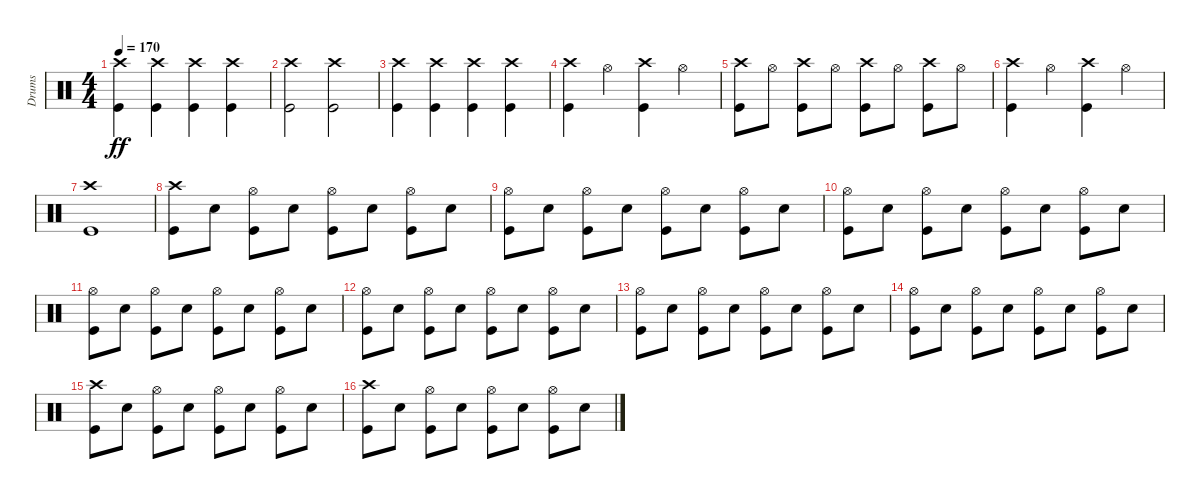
\track ("Drums" "Drums") {instrument percussion}
\staff {score}
\articulation defaults
\ts (4 4)
\tempo 170
\clef neutral
\ks c
("Crash high (hit)" "Kick (hit)").4{dy ff} ("Crash high (hit)" "Kick (hit)").4 ("Crash high (hit)" "Kick (hit)").4 ("Crash high (hit)" "Kick (hit)").4 |
("Crash high (hit)" "Kick (hit)").2 ("Crash high (hit)" "Kick (hit)").2 |
("Crash high (hit)" "Kick (hit)").4 ("Crash high (hit)" "Kick (hit)").4 ("Crash high (hit)" "Kick (hit)").4 ("Crash high (hit)" "Kick (hit)").4 |
("Crash high (hit)" "Kick (hit)").4 "Hi-Hat (open)".4 ("Crash high (hit)" "Kick (hit)").4 "Hi-Hat (open)".4 |
("Crash high (hit)" "Kick (hit)").8 "Hi-Hat (open)".8 ("Crash high (hit)" "Kick (hit)").8 "Hi-Hat (open)".8 ("Crash high (hit)" "Kick (hit)").8 "Hi-Hat (open)".8 ("Crash high (hit)" "Kick (hit)").8 "Hi-Hat (open)".8 |
("Crash high (hit)" "Kick (hit)").4 "Hi-Hat (open)".4 ("Crash high (hit)" "Kick (hit)").4 "Hi-Hat (open)".4 |
("Crash high (hit)" "Kick (hit)").1 |
("Crash high (hit)" "Kick (hit)").8 "Snare (hit) 2".8 ("Hi-Hat (open)" "Kick (hit)").8 "Snare (hit) 2".8 ("Hi-Hat (open)" "Kick (hit)").8 "Snare (hit) 2".8 ("Hi-Hat (open)" "Kick (hit)").8 "Snare (hit) 2".8 |
("Hi-Hat (open)" "Kick (hit)").8 "Snare (hit) 2".8 ("Hi-Hat (open)" "Kick (hit)").8 "Snare (hit) 2".8 ("Hi-Hat (open)" "Kick (hit)").8 "Snare (hit) 2".8 ("Hi-Hat (open)" "Kick (hit)").8 "Snare (hit) 2".8 |
("Hi-Hat (open)" "Kick (hit)").8 "Snare (hit) 2".8 ("Hi-Hat (open)" "Kick (hit)").8 "Snare (hit) 2".8 ("Hi-Hat (open)" "Kick (hit)").8 "Snare (hit) 2".8 ("Hi-Hat (open)" "Kick (hit)").8 "Snare (hit) 2".8 |
("Hi-Hat (open)" "Kick (hit)").8 "Snare (hit) 2".8 ("Hi-Hat (open)" "Kick (hit)").8 "Snare (hit) 2".8 ("Hi-Hat (open)" "Kick (hit)").8 "Snare (hit) 2".8 ("Hi-Hat (open)" "Kick (hit)").8 "Snare (hit) 2".8 |
("Hi-Hat (open)" "Kick (hit)").8 "Snare (hit) 2".8 ("Hi-Hat (open)" "Kick (hit)").8 "Snare (hit) 2".8 ("Hi-Hat (open)" "Kick (hit)").8 "Snare (hit) 2".8 ("Hi-Hat (open)" "Kick (hit)").8 "Snare (hit) 2".8 |
("Hi-Hat (open)" "Kick (hit)").8 "Snare (hit) 2".8 ("Hi-Hat (open)" "Kick (hit)").8 "Snare (hit) 2".8 ("Hi-Hat (open)" "Kick (hit)").8 "Snare (hit) 2".8 ("Hi-Hat (open)" "Kick (hit)").8 "Snare (hit) 2".8 |
("Hi-Hat (open)" "Kick (hit)").8 "Snare (hit) 2".8 ("Hi-Hat (open)" "Kick (hit)").8 "Snare (hit) 2".8 ("Hi-Hat (open)" "Kick (hit)").8 "Snare (hit) 2".8 ("Hi-Hat (open)" "Kick (hit)").8 "Snare (hit) 2".8 |
("Crash high (hit)" "Kick (hit)").8 "Snare (hit) 2".8 ("Hi-Hat (open)" "Kick (hit)").8 "Snare (hit) 2".8 ("Hi-Hat (open)" "Kick (hit)").8 "Snare (hit) 2".8 ("Hi-Hat (open)" "Kick (hit)").8 "Snare (hit) 2".8 |
("Crash high (hit)" "Kick (hit)").8 "Snare (hit) 2".8 ("Hi-Hat (open)" "Kick (hit)").8 "Snare (hit) 2".8 ("Hi-Hat (open)" "Kick (hit)").8 "Snare (hit) 2".8 ("Hi-Hat (open)" "Kick (hit)").8 "Snare (hit) 2".8
